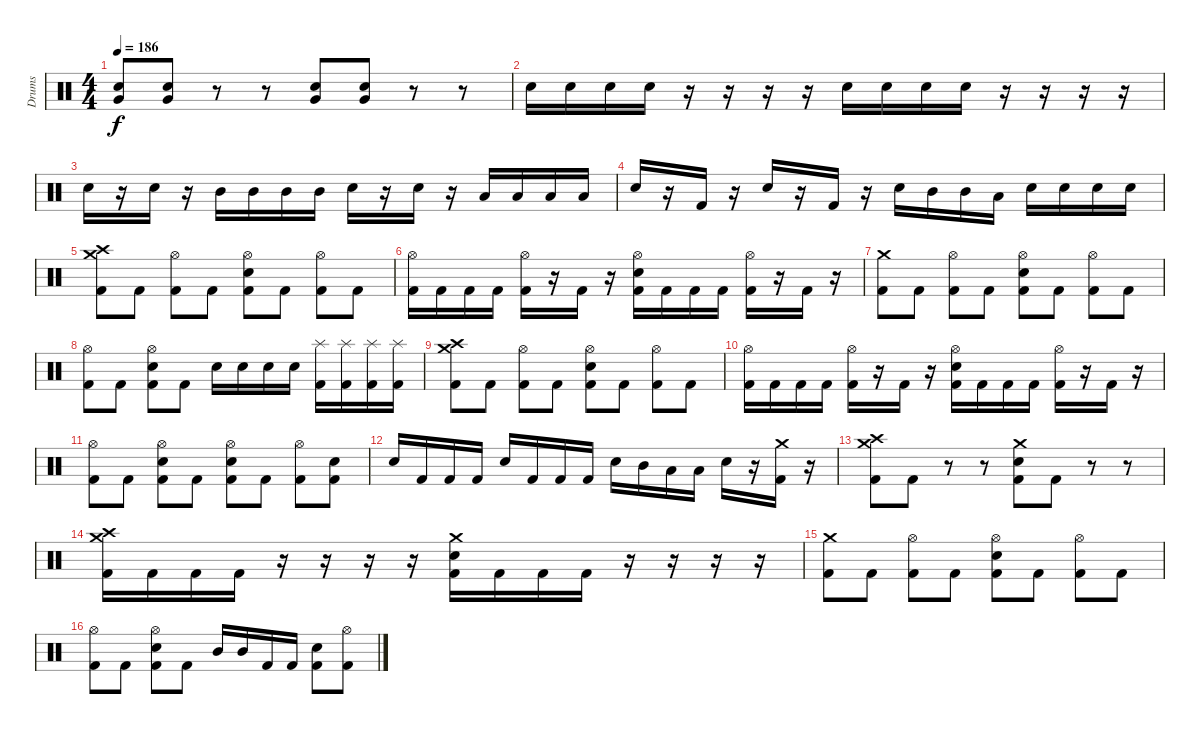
\track ("Drums" "Drums") {instrument percussion}
\staff {score}
\articulation defaults
\ts (4 4)
\tempo 186
\clef neutral
\ks c
("Very Low Tom (hit)" "Snare (hit) 2").8{dy f} ("Very Low Tom (hit)" "Snare (hit) 2").8 r.8 r.8 ("Very Low Tom (hit)" "Snare (hit) 2").8 ("Very Low Tom (hit)" "Snare (hit) 2").8 r.8 r.8 |
"Snare (hit) 2".16 "Snare (hit) 2".16 "Snare (hit) 2".16 "Snare (hit) 2".16 r.16 r.16 r.16 r.16 "Snare (hit) 2".16 "Snare (hit) 2".16 "Snare (hit) 2".16 "Snare (hit) 2".16 r.16 r.16 r.16 r.16 |
"Snare (hit) 2".16 r.16 "Snare (hit) 2".16 r.16 "Mid Tom (hit)".16 "Mid Tom (hit)".16 "Mid Tom (hit)".16 "Mid Tom (hit)".16 "Snare (hit) 2".16 r.16 "Snare (hit) 2".16 r.16 "Low Tom (hit)".16 "Low Tom (hit)".16 "Low Tom (hit)".16 "Low Tom (hit)".16 |
"Snare (hit) 2".16 r.16 "Kick (hit) 2".16 r.16 "Snare (hit) 2".16 r.16 "Kick (hit) 2".16 r.16 "Snare (hit) 2".16 "Mid Tom (hit)".16 "Mid Tom (hit)".16 "Low Tom (hit)".16 "Snare (hit) 2".16 "Snare (hit) 2".16 "Snare (hit) 2".16 "Snare (hit) 2".16 |
("Crash high (hit)" "Crash medium (hit)" "Kick (hit) 2").8 "Kick (hit) 2".8 ("Hi-Hat (open)" "Kick (hit) 2").8 "Kick (hit) 2".8 ("Hi-Hat (open)" "Snare (hit) 2" "Kick (hit) 2").8 "Kick (hit) 2".8 ("Hi-Hat (open)" "Kick (hit) 2").8 "Kick (hit) 2".8 |
("Hi-Hat (open)" "Kick (hit) 2").16 "Kick (hit) 2".16 "Kick (hit) 2".16 "Kick (hit) 2".16 ("Hi-Hat (open)" "Kick (hit) 2").16 r.16 "Kick (hit) 2".16 r.16 ("Hi-Hat (open)" "Snare (hit) 2" "Kick (hit) 2").16 "Kick (hit) 2".16 "Kick (hit) 2".16 "Kick (hit) 2".16 ("Hi-Hat (open)" "Kick (hit) 2").16 r.16 "Kick (hit) 2".16 r.16 |
("Crash medium (hit)" "Kick (hit) 2").8 "Kick (hit) 2".8 ("Hi-Hat (open)" "Kick (hit) 2").8 "Kick (hit) 2".8 ("Hi-Hat (open)" "Snare (hit) 2" "Kick (hit) 2").8 "Kick (hit) 2".8 ("Hi-Hat (open)" "Kick (hit) 2").8 "Kick (hit) 2".8 |
("Hi-Hat (open)" "Kick (hit) 2").8 "Kick (hit) 2".8 ("Hi-Hat (open)" "Snare (hit) 2" "Kick (hit) 2").8 "Kick (hit) 2".8 "Snare (hit) 2".16 "Snare (hit) 2".16 "Snare (hit) 2".16 "Snare (hit) 2".16 ("Splash (hit)" "Kick (hit) 2").16 ("Splash (hit)" "Kick (hit) 2").16 ("Splash (hit)" "Kick (hit) 2").16 ("Splash (hit)" "Kick (hit) 2").16 |
("Crash high (hit)" "Crash medium (hit)" "Kick (hit) 2").8 "Kick (hit) 2".8 ("Hi-Hat (open)" "Kick (hit) 2").8 "Kick (hit) 2".8 ("Hi-Hat (open)" "Snare (hit) 2" "Kick (hit) 2").8 "Kick (hit) 2".8 ("Hi-Hat (open)" "Kick (hit) 2").8 "Kick (hit) 2".8 |
("Hi-Hat (open)" "Kick (hit) 2").16 "Kick (hit) 2".16 "Kick (hit) 2".16 "Kick (hit) 2".16 ("Hi-Hat (open)" "Kick (hit) 2").16 r.16 "Kick (hit) 2".16 r.16 ("Hi-Hat (open)" "Snare (hit) 2" "Kick (hit) 2").16 "Kick (hit) 2".16 "Kick (hit) 2".16 "Kick (hit) 2".16 ("Hi-Hat (open)" "Kick (hit) 2").16 r.16 "Kick (hit) 2".16 r.16 |
("Hi-Hat (open)" "Kick (hit) 2").8 "Kick (hit) 2".8 ("Hi-Hat (open)" "Snare (hit) 2" "Kick (hit) 2").8 "Kick (hit) 2".8 ("Hi-Hat (open)" "Snare (hit) 2" "Kick (hit) 2").8 "Kick (hit) 2".8 ("Hi-Hat (open)" "Kick (hit) 2").8 ("Snare (hit) 2" "Kick (hit) 2").8 |
"Snare (hit) 2".16 "Kick (hit) 2".16 "Kick (hit) 2".16 "Kick (hit) 2".16 "Snare (hit) 2".16 "Kick (hit) 2".16 "Kick (hit) 2".16 "Kick (hit) 2".16 "Snare (hit) 2".16 "Mid Tom (hit)".16 "Low Tom (hit)".16 "Low Tom (hit)".16 "Snare (hit) 2".16 r.16 ("Crash medium (hit)" "Kick (hit) 2").16 r.16 |
("Crash high (hit)" "Crash medium (hit)" "Kick (hit) 2").8 "Kick (hit) 2".8 r.8 r.8 ("Crash medium (hit)" "Snare (hit) 2" "Kick (hit) 2").8 "Kick (hit) 2".8 r.8 r.8 |
("Crash high (hit)" "Crash medium (hit)" "Kick (hit) 2").16 "Kick (hit) 2".16 "Kick (hit) 2".16 "Kick (hit) 2".16 r.16 r.16 r.16 r.16 ("Crash medium (hit)" "Snare (hit) 2" "Kick (hit) 2").16 "Kick (hit) 2".16 "Kick (hit) 2".16 "Kick (hit) 2".16 r.16 r.16 r.16 r.16 |
("Crash medium (hit)" "Kick (hit) 2").8 "Kick (hit) 2".8 ("Hi-Hat (open)" "Kick (hit) 2").8 "Kick (hit) 2".8 ("Hi-Hat (open)" "Snare (hit) 2" "Kick (hit) 2").8 "Kick (hit) 2".8 ("Hi-Hat (open)" "Kick (hit) 2").8 "Kick (hit) 2".8 |
("Hi-Hat (open)" "Kick (hit) 2").8 "Kick (hit) 2".8 ("Hi-Hat (open)" "Snare (hit) 2" "Kick (hit) 2").8 "Kick (hit) 2".8 "Mid Tom (hit)".16 "Mid Tom (hit)".16 "Kick (hit) 2".16 "Kick (hit) 2".16 ("Snare (hit) 2" "Kick (hit) 2").8 ("Hi-Hat (open)" "Kick (hit) 2").8
